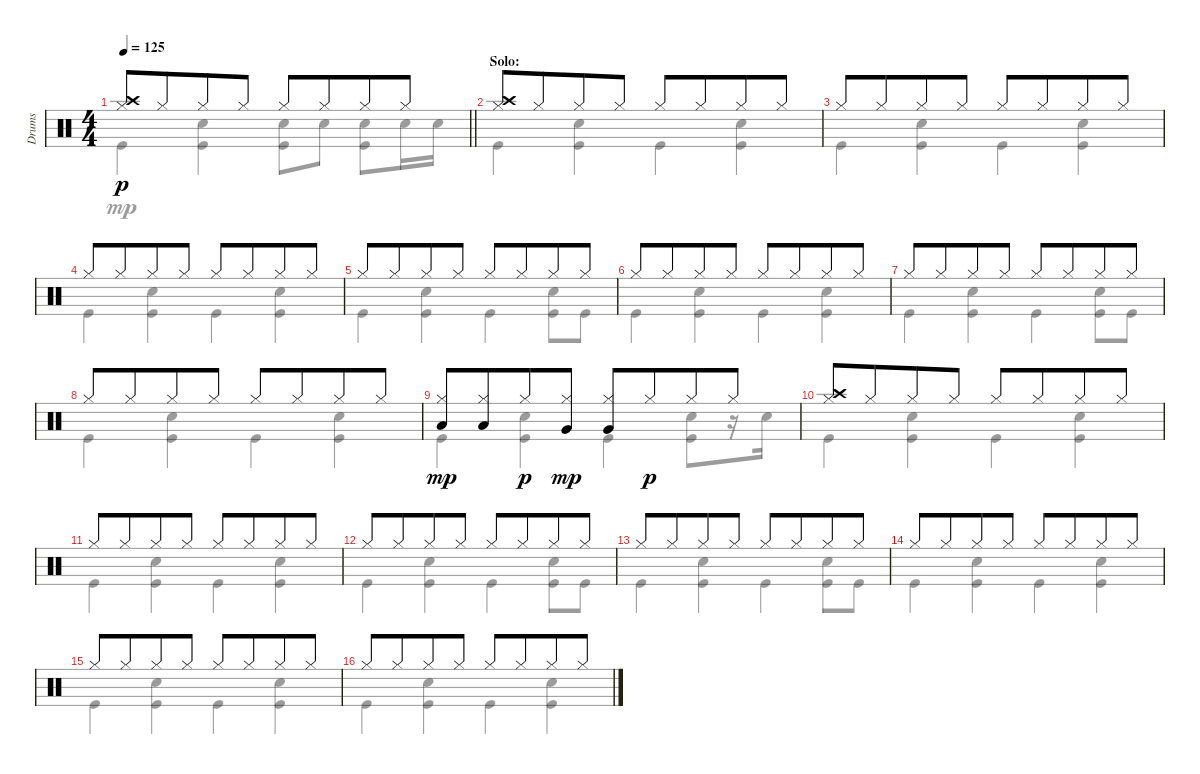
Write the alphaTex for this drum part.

\track ("Drums" "Drums") {instrument percussion}
\staff {score}
\articulation defaults
\voice
\ts (4 4)
\tempo 125
\clef neutral
\barLineRight lightlight
\ks c
("Hi-Hat (closed)" "Crash high (hit)").8{dy p} "Hi-Hat (closed)".8{beam merge} "Hi-Hat (closed)".8 "Hi-Hat (closed)".8 "Hi-Hat (closed)".8 "Hi-Hat (closed)".8{beam merge} "Hi-Hat (closed)".8 "Hi-Hat (closed)".8 |
\section ("" "Solo:")
("Hi-Hat (closed)" "Crash high (hit)").8 "Hi-Hat (closed)".8{beam merge} "Hi-Hat (closed)".8 "Hi-Hat (closed)".8 "Hi-Hat (closed)".8 "Hi-Hat (closed)".8{beam merge} "Hi-Hat (closed)".8 "Hi-Hat (closed)".8 |
"Hi-Hat (closed)".8 "Hi-Hat (closed)".8{beam merge} "Hi-Hat (closed)".8 "Hi-Hat (closed)".8 "Hi-Hat (closed)".8 "Hi-Hat (closed)".8{beam merge} "Hi-Hat (closed)".8 "Hi-Hat (closed)".8 |
"Hi-Hat (closed)".8 "Hi-Hat (closed)".8{beam merge} "Hi-Hat (closed)".8 "Hi-Hat (closed)".8 "Hi-Hat (closed)".8 "Hi-Hat (closed)".8{beam merge} "Hi-Hat (closed)".8 "Hi-Hat (closed)".8 |
"Hi-Hat (closed)".8 "Hi-Hat (closed)".8{beam merge} "Hi-Hat (closed)".8 "Hi-Hat (closed)".8 "Hi-Hat (closed)".8 "Hi-Hat (closed)".8{beam merge} "Hi-Hat (closed)".8 "Hi-Hat (closed)".8 |
"Hi-Hat (closed)".8 "Hi-Hat (closed)".8{beam merge} "Hi-Hat (closed)".8 "Hi-Hat (closed)".8 "Hi-Hat (closed)".8 "Hi-Hat (closed)".8{beam merge} "Hi-Hat (closed)".8 "Hi-Hat (closed)".8 |
"Hi-Hat (closed)".8 "Hi-Hat (closed)".8{beam merge} "Hi-Hat (closed)".8 "Hi-Hat (closed)".8 "Hi-Hat (closed)".8 "Hi-Hat (closed)".8{beam merge} "Hi-Hat (closed)".8 "Hi-Hat (closed)".8 |
"Hi-Hat (closed)".8 "Hi-Hat (closed)".8{beam merge} "Hi-Hat (closed)".8 "Hi-Hat (closed)".8 "Hi-Hat (closed)".8 "Hi-Hat (closed)".8{beam merge} "Hi-Hat (closed)".8 "Hi-Hat (closed)".8 |
("Hi-Hat (closed)" "Low Tom (hit)").8{dy mp} ("Hi-Hat (closed)" "Low Tom (hit)").8{beam merge} "Hi-Hat (closed)".8{dy p} ("Hi-Hat (closed)" "Very Low Tom (hit)").8{dy mp} ("Hi-Hat (closed)" "Very Low Tom (hit)").8 "Hi-Hat (closed)".8{dy p beam merge} "Hi-Hat (closed)".8 "Hi-Hat (closed)".8 |
("Hi-Hat (closed)" "Crash high (hit)").8 "Hi-Hat (closed)".8{beam merge} "Hi-Hat (closed)".8 "Hi-Hat (closed)".8 "Hi-Hat (closed)".8 "Hi-Hat (closed)".8{beam merge} "Hi-Hat (closed)".8 "Hi-Hat (closed)".8 |
"Hi-Hat (closed)".8 "Hi-Hat (closed)".8{beam merge} "Hi-Hat (closed)".8 "Hi-Hat (closed)".8 "Hi-Hat (closed)".8 "Hi-Hat (closed)".8{beam merge} "Hi-Hat (closed)".8 "Hi-Hat (closed)".8 |
"Hi-Hat (closed)".8 "Hi-Hat (closed)".8{beam merge} "Hi-Hat (closed)".8 "Hi-Hat (closed)".8 "Hi-Hat (closed)".8 "Hi-Hat (closed)".8{beam merge} "Hi-Hat (closed)".8 "Hi-Hat (closed)".8 |
"Hi-Hat (closed)".8 "Hi-Hat (closed)".8{beam merge} "Hi-Hat (closed)".8 "Hi-Hat (closed)".8 "Hi-Hat (closed)".8 "Hi-Hat (closed)".8{beam merge} "Hi-Hat (closed)".8 "Hi-Hat (closed)".8 |
"Hi-Hat (closed)".8 "Hi-Hat (closed)".8{beam merge} "Hi-Hat (closed)".8 "Hi-Hat (closed)".8 "Hi-Hat (closed)".8 "Hi-Hat (closed)".8{beam merge} "Hi-Hat (closed)".8 "Hi-Hat (closed)".8 |
"Hi-Hat (closed)".8 "Hi-Hat (closed)".8{beam merge} "Hi-Hat (closed)".8 "Hi-Hat (closed)".8 "Hi-Hat (closed)".8 "Hi-Hat (closed)".8{beam merge} "Hi-Hat (closed)".8 "Hi-Hat (closed)".8 |
"Hi-Hat (closed)".8 "Hi-Hat (closed)".8{beam merge} "Hi-Hat (closed)".8 "Hi-Hat (closed)".8 "Hi-Hat (closed)".8 "Hi-Hat (closed)".8{beam merge} "Hi-Hat (closed)".8 "Hi-Hat (closed)".8
\voice
\clef neutral
\ottava regular
\simile none
\barLineRight lightlight
\ks c "Kick (hit)".4{dy mp}
("Snare (hit) 2" "Kick (hit)").4 ("Snare (hit) 2" "Kick (hit)").8 "Snare (hit) 2".8 ("Snare (hit) 2" "Kick (hit)").8 "Snare (hit) 2".16 "Snare (hit) 2".16 |
"Kick (hit)".4 ("Snare (hit) 2" "Kick (hit)").4 "Kick (hit)".4 ("Snare (hit) 2" "Kick (hit)").4 |
"Kick (hit)".4 ("Snare (hit) 2" "Kick (hit)").4 "Kick (hit)".4 ("Snare (hit) 2" "Kick (hit)").4 |
"Kick (hit)".4 ("Snare (hit) 2" "Kick (hit)").4 "Kick (hit)".4 ("Snare (hit) 2" "Kick (hit)").4 |
"Kick (hit)".4 ("Snare (hit) 2" "Kick (hit)").4 "Kick (hit)".4 ("Snare (hit) 2" "Kick (hit)").8 "Kick (hit)".8 |
"Kick (hit)".4 ("Snare (hit) 2" "Kick (hit)").4 "Kick (hit)".4 ("Snare (hit) 2" "Kick (hit)").4 |
"Kick (hit)".4 ("Snare (hit) 2" "Kick (hit)").4 "Kick (hit)".4 ("Snare (hit) 2" "Kick (hit)").8 "Kick (hit)".8 |
"Kick (hit)".4 ("Snare (hit) 2" "Kick (hit)").4 "Kick (hit)".4 ("Snare (hit) 2" "Kick (hit)").4 |
"Kick (hit)".4 ("Snare (hit) 2" "Kick (hit)").4 "Kick (hit)".4 ("Snare (hit) 2" "Kick (hit)").8 r.16 "Snare (hit) 2".16 |
"Kick (hit)".4 ("Snare (hit) 2" "Kick (hit)").4 "Kick (hit)".4 ("Snare (hit) 2" "Kick (hit)").4 |
"Kick (hit)".4 ("Snare (hit) 2" "Kick (hit)").4 "Kick (hit)".4 ("Snare (hit) 2" "Kick (hit)").4 |
"Kick (hit)".4 ("Snare (hit) 2" "Kick (hit)").4 "Kick (hit)".4 ("Snare (hit) 2" "Kick (hit)").8 "Kick (hit)".8 |
"Kick (hit)".4 ("Snare (hit) 2" "Kick (hit)").4 "Kick (hit)".4 ("Snare (hit) 2" "Kick (hit)").8 "Kick (hit)".8 |
"Kick (hit)".4 ("Snare (hit) 2" "Kick (hit)").4 "Kick (hit)".4 ("Snare (hit) 2" "Kick (hit)").4 |
"Kick (hit)".4 ("Snare (hit) 2" "Kick (hit)").4 "Kick (hit)".4 ("Snare (hit) 2" "Kick (hit)").4 |
"Kick (hit)".4 ("Snare (hit) 2" "Kick (hit)").4 "Kick (hit)".4 ("Snare (hit) 2" "Kick (hit)").4
